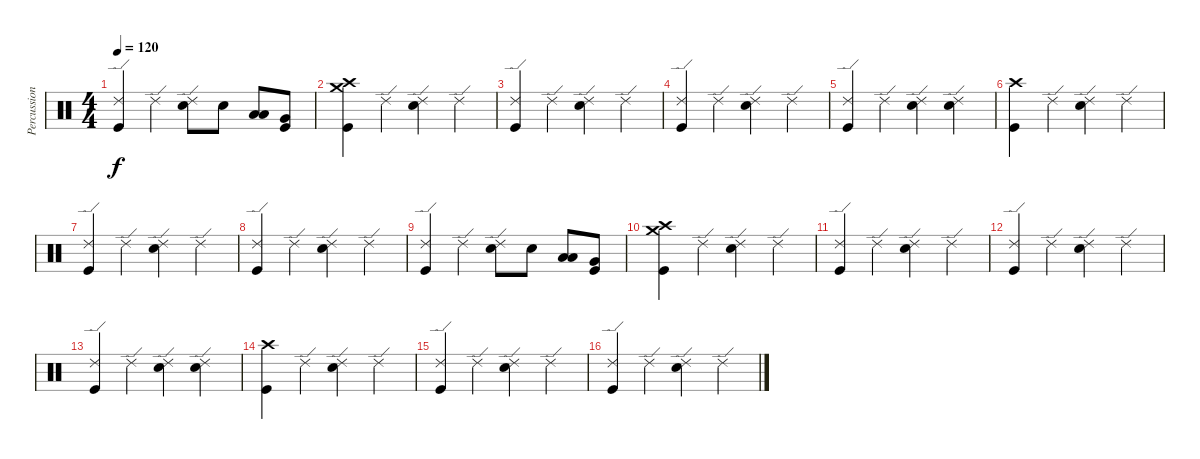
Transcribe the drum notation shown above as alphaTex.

\track ("Percussions" "Percussion") {instrument percussion}
\staff {score}
\articulation defaults
\ts (4 4)
\tempo 120
\clef neutral
\ks c
("Ride (edge) 2" "Kick (hit)").4{dy f} "Ride (edge) 2".4 ("Ride (edge) 2" "Electric Snare (hit)").8 "Electric Snare (hit)".8 ("Low Tom (hit)" "Low Tom (hit)").8{bd 120} ("Very Low Tom (hit)" "Kick (hit)").8 |
("Crash high (hit)" "Crash medium (hit)" "Kick (hit)").4 "Ride (edge) 2".4 ("Ride (edge) 2" "Electric Snare (hit)").4 "Ride (edge) 2".4 |
("Ride (edge) 2" "Kick (hit)").4 "Ride (edge) 2".4 ("Ride (edge) 2" "Electric Snare (hit)").4 "Ride (edge) 2".4 |
("Ride (edge) 2" "Kick (hit)").4 "Ride (edge) 2".4 ("Ride (edge) 2" "Electric Snare (hit)").4 "Ride (edge) 2".4 |
("Ride (edge) 2" "Kick (hit)").4 "Ride (edge) 2".4 ("Ride (edge) 2" "Electric Snare (hit)").4 ("Ride (edge) 2" "Electric Snare (hit)").4 |
("Crash high (hit)" "Kick (hit)").4 "Ride (edge) 2".4 ("Ride (edge) 2" "Electric Snare (hit)").4 "Ride (edge) 2".4 |
("Ride (edge) 2" "Kick (hit)").4 "Ride (edge) 2".4 ("Ride (edge) 2" "Electric Snare (hit)").4 "Ride (edge) 2".4 |
("Ride (edge) 2" "Kick (hit)").4 "Ride (edge) 2".4 ("Ride (edge) 2" "Electric Snare (hit)").4 "Ride (edge) 2".4 |
("Ride (edge) 2" "Kick (hit)").4 "Ride (edge) 2".4 ("Ride (edge) 2" "Electric Snare (hit)").8 "Electric Snare (hit)".8 ("Low Tom (hit)" "Low Tom (hit)").8{bd 120} ("Very Low Tom (hit)" "Kick (hit)").8 |
("Crash high (hit)" "Crash medium (hit)" "Kick (hit)").4 "Ride (edge) 2".4 ("Ride (edge) 2" "Electric Snare (hit)").4 "Ride (edge) 2".4 |
("Ride (edge) 2" "Kick (hit)").4 "Ride (edge) 2".4 ("Ride (edge) 2" "Electric Snare (hit)").4 "Ride (edge) 2".4 |
("Ride (edge) 2" "Kick (hit)").4 "Ride (edge) 2".4 ("Ride (edge) 2" "Electric Snare (hit)").4 "Ride (edge) 2".4 |
("Ride (edge) 2" "Kick (hit)").4 "Ride (edge) 2".4 ("Ride (edge) 2" "Electric Snare (hit)").4 ("Ride (edge) 2" "Electric Snare (hit)").4 |
("Crash high (hit)" "Kick (hit)").4 "Ride (edge) 2".4 ("Ride (edge) 2" "Electric Snare (hit)").4 "Ride (edge) 2".4 |
("Ride (edge) 2" "Kick (hit)").4 "Ride (edge) 2".4 ("Ride (edge) 2" "Electric Snare (hit)").4 "Ride (edge) 2".4 |
("Ride (edge) 2" "Kick (hit)").4 "Ride (edge) 2".4 ("Ride (edge) 2" "Electric Snare (hit)").4 "Ride (edge) 2".4
